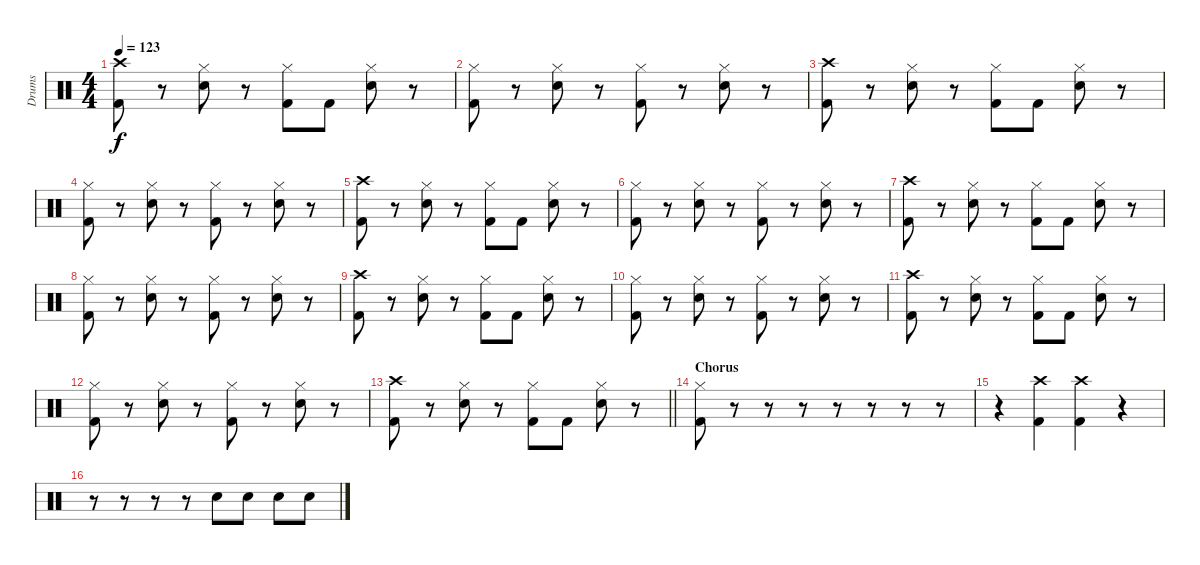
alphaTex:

\track ("Drums" "Drums") {instrument percussion}
\staff {score}
\articulation defaults
\ts (4 4)
\tempo 123
\clef neutral
\ks c
("Crash high (hit)" "Kick (hit) 2").8{dy f} r.8 ("Hi-Hat (closed)" "Snare (hit) 2").8 r.8 ("Hi-Hat (closed)" "Kick (hit) 2").8 "Kick (hit) 2".8 ("Hi-Hat (closed)" "Snare (hit) 2").8 r.8 |
("Hi-Hat (closed)" "Kick (hit) 2").8 r.8 ("Hi-Hat (closed)" "Snare (hit) 2").8 r.8 ("Hi-Hat (closed)" "Kick (hit) 2").8 r.8 ("Hi-Hat (closed)" "Snare (hit) 2").8 r.8 |
("Crash high (hit)" "Kick (hit) 2").8 r.8 ("Hi-Hat (closed)" "Snare (hit) 2").8 r.8 ("Hi-Hat (closed)" "Kick (hit) 2").8 "Kick (hit) 2".8 ("Hi-Hat (closed)" "Snare (hit) 2").8 r.8 |
("Hi-Hat (closed)" "Kick (hit) 2").8 r.8 ("Hi-Hat (closed)" "Snare (hit) 2").8 r.8 ("Hi-Hat (closed)" "Kick (hit) 2").8 r.8 ("Hi-Hat (closed)" "Snare (hit) 2").8 r.8 |
("Crash high (hit)" "Kick (hit) 2").8 r.8 ("Hi-Hat (closed)" "Snare (hit) 2").8 r.8 ("Hi-Hat (closed)" "Kick (hit) 2").8 "Kick (hit) 2".8 ("Hi-Hat (closed)" "Snare (hit) 2").8 r.8 |
("Hi-Hat (closed)" "Kick (hit) 2").8 r.8 ("Hi-Hat (closed)" "Snare (hit) 2").8 r.8 ("Hi-Hat (closed)" "Kick (hit) 2").8 r.8 ("Hi-Hat (closed)" "Snare (hit) 2").8 r.8 |
("Crash high (hit)" "Kick (hit) 2").8 r.8 ("Hi-Hat (closed)" "Snare (hit) 2").8 r.8 ("Hi-Hat (closed)" "Kick (hit) 2").8 "Kick (hit) 2".8 ("Hi-Hat (closed)" "Snare (hit) 2").8 r.8 |
("Hi-Hat (closed)" "Kick (hit) 2").8 r.8 ("Hi-Hat (closed)" "Snare (hit) 2").8 r.8 ("Hi-Hat (closed)" "Kick (hit) 2").8 r.8 ("Hi-Hat (closed)" "Snare (hit) 2").8 r.8 |
("Crash high (hit)" "Kick (hit) 2").8 r.8 ("Hi-Hat (closed)" "Snare (hit) 2").8 r.8 ("Hi-Hat (closed)" "Kick (hit) 2").8 "Kick (hit) 2".8 ("Hi-Hat (closed)" "Snare (hit) 2").8 r.8 |
("Hi-Hat (closed)" "Kick (hit) 2").8 r.8 ("Hi-Hat (closed)" "Snare (hit) 2").8 r.8 ("Hi-Hat (closed)" "Kick (hit) 2").8 r.8 ("Hi-Hat (closed)" "Snare (hit) 2").8 r.8 |
("Crash high (hit)" "Kick (hit) 2").8 r.8 ("Hi-Hat (closed)" "Snare (hit) 2").8 r.8 ("Hi-Hat (closed)" "Kick (hit) 2").8 "Kick (hit) 2".8 ("Hi-Hat (closed)" "Snare (hit) 2").8 r.8 |
("Hi-Hat (closed)" "Kick (hit) 2").8 r.8 ("Hi-Hat (closed)" "Snare (hit) 2").8 r.8 ("Hi-Hat (closed)" "Kick (hit) 2").8 r.8 ("Hi-Hat (closed)" "Snare (hit) 2").8 r.8 |
\barLineRight lightlight
("Crash high (hit)" "Kick (hit) 2").8 r.8 ("Hi-Hat (closed)" "Snare (hit) 2").8 r.8 ("Hi-Hat (closed)" "Kick (hit) 2").8 "Kick (hit) 2".8 ("Hi-Hat (closed)" "Snare (hit) 2").8 r.8 |
\section ("" "Chorus")
("Hi-Hat (closed)" "Kick (hit) 2").8 r.8 r.8 r.8 r.8 r.8 r.8 r.8 |
r.4 ("Crash high (hit)" "Kick (hit) 2").4 ("Crash high (hit)" "Kick (hit) 2").4 r.4 |
r.8 r.8 r.8 r.8 "Snare (hit) 2".8 "Snare (hit) 2".8 "Snare (hit) 2".8 "Snare (hit) 2".8
